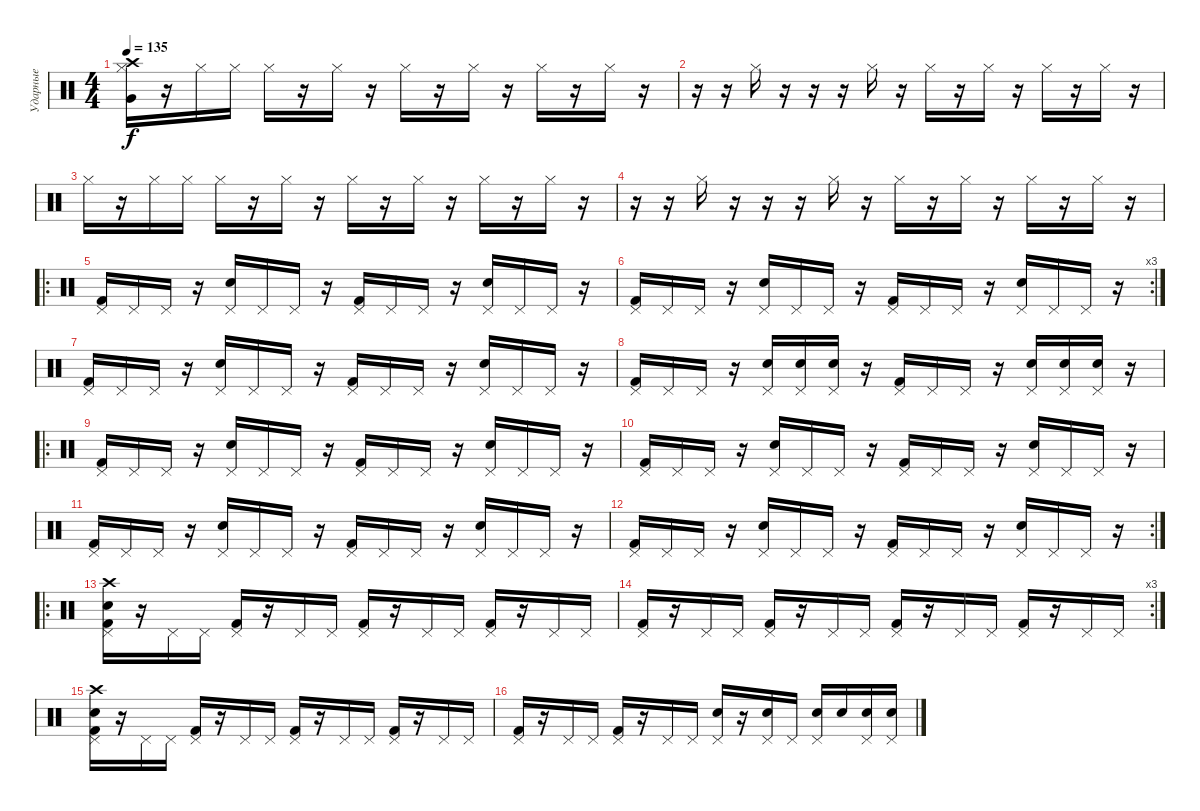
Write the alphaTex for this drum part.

\track ("Ударные" "Ударные") {instrument percussion}
\staff {score}
\articulation defaults
\ts (4 4)
\tempo 135
\clef neutral
\ks c
("Very Low Tom (hit)" "Crash high (hit)" "Hi-Hat (closed)").16{dy f} r.16 "Hi-Hat (closed)".16 "Hi-Hat (closed)".16 "Hi-Hat (closed)".16 r.16 "Hi-Hat (closed)".16 r.16 "Hi-Hat (closed)".16 r.16 "Hi-Hat (closed)".16 r.16 "Hi-Hat (closed)".16 r.16 "Hi-Hat (closed)".16 r.16 |
r.16 r.16 "Hi-Hat (closed)".16 r.16 r.16 r.16 "Hi-Hat (closed)".16 r.16 "Hi-Hat (closed)".16 r.16 "Hi-Hat (closed)".16 r.16 "Hi-Hat (closed)".16 r.16 "Hi-Hat (closed)".16 r.16 |
"Hi-Hat (closed)".16 r.16 "Hi-Hat (closed)".16 "Hi-Hat (closed)".16 "Hi-Hat (closed)".16 r.16 "Hi-Hat (closed)".16 r.16 "Hi-Hat (closed)".16 r.16 "Hi-Hat (closed)".16 r.16 "Hi-Hat (closed)".16 r.16 "Hi-Hat (closed)".16 r.16 |
r.16 r.16 "Hi-Hat (closed)".16 r.16 r.16 r.16 "Hi-Hat (closed)".16 r.16 "Hi-Hat (closed)".16 r.16 "Hi-Hat (closed)".16 r.16 "Hi-Hat (closed)".16 r.16 "Hi-Hat (closed)".16 r.16 |
\ro
("Pedal Hi-Hat (hit)" "Kick (hit) 2").16 "Pedal Hi-Hat (hit)".16 "Pedal Hi-Hat (hit)".16 r.16 ("Pedal Hi-Hat (hit)" "Snare (hit) 2").16 "Pedal Hi-Hat (hit)".16 "Pedal Hi-Hat (hit)".16 r.16 ("Pedal Hi-Hat (hit)" "Kick (hit) 2").16 "Pedal Hi-Hat (hit)".16 "Pedal Hi-Hat (hit)".16 r.16 ("Pedal Hi-Hat (hit)" "Snare (hit) 2").16 "Pedal Hi-Hat (hit)".16 "Pedal Hi-Hat (hit)".16 r.16 |
\rc 3
("Pedal Hi-Hat (hit)" "Kick (hit) 2").16 "Pedal Hi-Hat (hit)".16 "Pedal Hi-Hat (hit)".16 r.16 ("Pedal Hi-Hat (hit)" "Snare (hit) 2").16 "Pedal Hi-Hat (hit)".16 "Pedal Hi-Hat (hit)".16 r.16 ("Pedal Hi-Hat (hit)" "Kick (hit) 2").16 "Pedal Hi-Hat (hit)".16 "Pedal Hi-Hat (hit)".16 r.16 ("Pedal Hi-Hat (hit)" "Snare (hit) 2").16 "Pedal Hi-Hat (hit)".16 "Pedal Hi-Hat (hit)".16 r.16 |
("Pedal Hi-Hat (hit)" "Kick (hit) 2").16 "Pedal Hi-Hat (hit)".16 "Pedal Hi-Hat (hit)".16 r.16 ("Pedal Hi-Hat (hit)" "Snare (hit) 2").16 "Pedal Hi-Hat (hit)".16 "Pedal Hi-Hat (hit)".16 r.16 ("Pedal Hi-Hat (hit)" "Kick (hit) 2").16 "Pedal Hi-Hat (hit)".16 "Pedal Hi-Hat (hit)".16 r.16 ("Pedal Hi-Hat (hit)" "Snare (hit) 2").16 "Pedal Hi-Hat (hit)".16 "Pedal Hi-Hat (hit)".16 r.16 |
("Pedal Hi-Hat (hit)" "Kick (hit) 2").16 "Pedal Hi-Hat (hit)".16 "Pedal Hi-Hat (hit)".16 r.16 ("Pedal Hi-Hat (hit)" "Snare (hit) 2").16 ("Pedal Hi-Hat (hit)" "Snare (hit) 2").16 ("Pedal Hi-Hat (hit)" "Snare (hit) 2").16 r.16 ("Pedal Hi-Hat (hit)" "Kick (hit) 2").16 "Pedal Hi-Hat (hit)".16 "Pedal Hi-Hat (hit)".16 r.16 ("Pedal Hi-Hat (hit)" "Snare (hit) 2").16 ("Pedal Hi-Hat (hit)" "Snare (hit) 2").16 ("Pedal Hi-Hat (hit)" "Snare (hit) 2").16 r.16 |
\ro
("Pedal Hi-Hat (hit)" "Kick (hit) 2").16 "Pedal Hi-Hat (hit)".16 "Pedal Hi-Hat (hit)".16 r.16 ("Pedal Hi-Hat (hit)" "Snare (hit) 2").16 "Pedal Hi-Hat (hit)".16 "Pedal Hi-Hat (hit)".16 r.16 ("Pedal Hi-Hat (hit)" "Kick (hit) 2").16 "Pedal Hi-Hat (hit)".16 "Pedal Hi-Hat (hit)".16 r.16 ("Pedal Hi-Hat (hit)" "Snare (hit) 2").16 "Pedal Hi-Hat (hit)".16 "Pedal Hi-Hat (hit)".16 r.16 |
("Pedal Hi-Hat (hit)" "Kick (hit) 2").16 "Pedal Hi-Hat (hit)".16 "Pedal Hi-Hat (hit)".16 r.16 ("Pedal Hi-Hat (hit)" "Snare (hit) 2").16 "Pedal Hi-Hat (hit)".16 "Pedal Hi-Hat (hit)".16 r.16 ("Pedal Hi-Hat (hit)" "Kick (hit) 2").16 "Pedal Hi-Hat (hit)".16 "Pedal Hi-Hat (hit)".16 r.16 ("Pedal Hi-Hat (hit)" "Snare (hit) 2").16 "Pedal Hi-Hat (hit)".16 "Pedal Hi-Hat (hit)".16 r.16 |
("Pedal Hi-Hat (hit)" "Kick (hit) 2").16 "Pedal Hi-Hat (hit)".16 "Pedal Hi-Hat (hit)".16 r.16 ("Pedal Hi-Hat (hit)" "Snare (hit) 2").16 "Pedal Hi-Hat (hit)".16 "Pedal Hi-Hat (hit)".16 r.16 ("Pedal Hi-Hat (hit)" "Kick (hit) 2").16 "Pedal Hi-Hat (hit)".16 "Pedal Hi-Hat (hit)".16 r.16 ("Pedal Hi-Hat (hit)" "Snare (hit) 2").16 "Pedal Hi-Hat (hit)".16 "Pedal Hi-Hat (hit)".16 r.16 |
\rc 2
("Pedal Hi-Hat (hit)" "Kick (hit) 2").16 "Pedal Hi-Hat (hit)".16 "Pedal Hi-Hat (hit)".16 r.16 ("Pedal Hi-Hat (hit)" "Snare (hit) 2").16 "Pedal Hi-Hat (hit)".16 "Pedal Hi-Hat (hit)".16 r.16 ("Pedal Hi-Hat (hit)" "Kick (hit) 2").16 "Pedal Hi-Hat (hit)".16 "Pedal Hi-Hat (hit)".16 r.16 ("Pedal Hi-Hat (hit)" "Snare (hit) 2").16 "Pedal Hi-Hat (hit)".16 "Pedal Hi-Hat (hit)".16 r.16 |
\ro
("Pedal Hi-Hat (hit)" "Kick (hit) 2" "Snare (hit) 2" "Crash high (hit)").16 r.16 "Pedal Hi-Hat (hit)".16 "Pedal Hi-Hat (hit)".16 ("Pedal Hi-Hat (hit)" "Kick (hit) 2").16 r.16 "Pedal Hi-Hat (hit)".16 "Pedal Hi-Hat (hit)".16 ("Pedal Hi-Hat (hit)" "Kick (hit) 2").16 r.16 "Pedal Hi-Hat (hit)".16 "Pedal Hi-Hat (hit)".16 ("Pedal Hi-Hat (hit)" "Kick (hit) 2").16 r.16 "Pedal Hi-Hat (hit)".16 "Pedal Hi-Hat (hit)".16 |
\rc 3
("Pedal Hi-Hat (hit)" "Kick (hit) 2").16 r.16 "Pedal Hi-Hat (hit)".16 "Pedal Hi-Hat (hit)".16 ("Pedal Hi-Hat (hit)" "Kick (hit) 2").16 r.16 "Pedal Hi-Hat (hit)".16 "Pedal Hi-Hat (hit)".16 ("Pedal Hi-Hat (hit)" "Kick (hit) 2").16 r.16 "Pedal Hi-Hat (hit)".16 "Pedal Hi-Hat (hit)".16 ("Pedal Hi-Hat (hit)" "Kick (hit) 2").16 r.16 "Pedal Hi-Hat (hit)".16 "Pedal Hi-Hat (hit)".16 |
("Pedal Hi-Hat (hit)" "Kick (hit) 2" "Snare (hit) 2" "Crash high (hit)").16 r.16 "Pedal Hi-Hat (hit)".16 "Pedal Hi-Hat (hit)".16 ("Pedal Hi-Hat (hit)" "Kick (hit) 2").16 r.16 "Pedal Hi-Hat (hit)".16 "Pedal Hi-Hat (hit)".16 ("Pedal Hi-Hat (hit)" "Kick (hit) 2").16 r.16 "Pedal Hi-Hat (hit)".16 "Pedal Hi-Hat (hit)".16 ("Pedal Hi-Hat (hit)" "Kick (hit) 2").16 r.16 "Pedal Hi-Hat (hit)".16 "Pedal Hi-Hat (hit)".16 |
("Pedal Hi-Hat (hit)" "Kick (hit) 2").16 r.16 "Pedal Hi-Hat (hit)".16 "Pedal Hi-Hat (hit)".16 ("Pedal Hi-Hat (hit)" "Kick (hit) 2").16 r.16 "Pedal Hi-Hat (hit)".16 "Pedal Hi-Hat (hit)".16 ("Pedal Hi-Hat (hit)" "Snare (hit) 2").16 r.16 ("Pedal Hi-Hat (hit)" "Snare (hit) 2").16 "Pedal Hi-Hat (hit)".16 ("Pedal Hi-Hat (hit)" "Snare (hit) 2").16 "Snare (hit) 2".16 ("Pedal Hi-Hat (hit)" "Snare (hit) 2").16 ("Pedal Hi-Hat (hit)" "Snare (hit) 2").16
